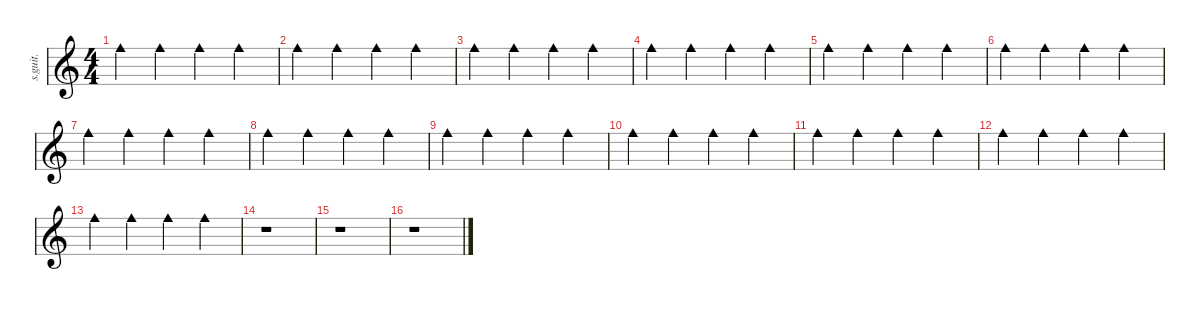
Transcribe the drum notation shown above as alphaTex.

\defaultSystemsLayout 4
\hideDynamics
\bracketExtendMode nobrackets
\track ("Cowbell" "s.guit.") {instrument percussion}
\staff {score}
\articulation defaults
\ts (4 4)
\tempo (107 hide)
\clef g2
\ks c "Cowbell medium (hit)".4{dy mp} "Cowbell medium (hit)".4 "Cowbell medium (hit)".4 "Cowbell medium (hit)".4
|
"Cowbell medium (hit)".4 "Cowbell medium (hit)".4 "Cowbell medium (hit)".4 "Cowbell medium (hit)".4 |
"Cowbell medium (hit)".4 "Cowbell medium (hit)".4 "Cowbell medium (hit)".4 "Cowbell medium (hit)".4 |
"Cowbell medium (hit)".4 "Cowbell medium (hit)".4 "Cowbell medium (hit)".4 "Cowbell medium (hit)".4 |
"Cowbell medium (hit)".4 "Cowbell medium (hit)".4 "Cowbell medium (hit)".4 "Cowbell medium (hit)".4 |
"Cowbell medium (hit)".4 "Cowbell medium (hit)".4 "Cowbell medium (hit)".4 "Cowbell medium (hit)".4 |
"Cowbell medium (hit)".4 "Cowbell medium (hit)".4 "Cowbell medium (hit)".4 "Cowbell medium (hit)".4 |
"Cowbell medium (hit)".4 "Cowbell medium (hit)".4 "Cowbell medium (hit)".4 "Cowbell medium (hit)".4 |
"Cowbell medium (hit)".4 "Cowbell medium (hit)".4 "Cowbell medium (hit)".4 "Cowbell medium (hit)".4 |
"Cowbell medium (hit)".4 "Cowbell medium (hit)".4 "Cowbell medium (hit)".4 "Cowbell medium (hit)".4 |
"Cowbell medium (hit)".4 "Cowbell medium (hit)".4 "Cowbell medium (hit)".4 "Cowbell medium (hit)".4 |
"Cowbell medium (hit)".4 "Cowbell medium (hit)".4 "Cowbell medium (hit)".4 "Cowbell medium (hit)".4 |
"Cowbell medium (hit)".4 "Cowbell medium (hit)".4 "Cowbell medium (hit)".4 "Cowbell medium (hit)".4 |
r.1 |
r.1 |
r.1
